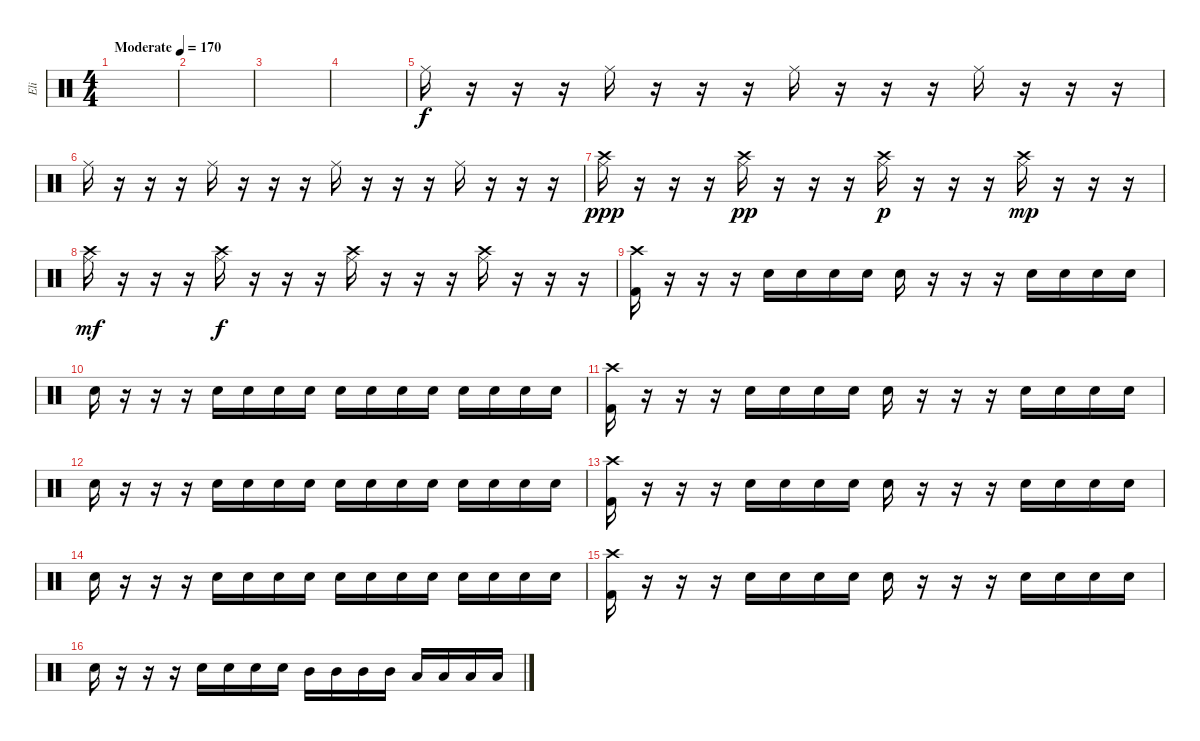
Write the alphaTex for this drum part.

\track ("Eli" "Eli") {instrument percussion}
\staff {score}
\articulation defaults
\ts (4 4)
\tempo (170 "Moderate")
\clef neutral
\ks c
|
|
|
|
"Ride (middle)".16 r.16 r.16 r.16 "Ride (middle)".16 r.16 r.16 r.16 "Ride (middle)".16 r.16 r.16 r.16 "Ride (middle)".16 r.16 r.16 r.16 |
"Ride (middle)".16 r.16 r.16 r.16 "Ride (middle)".16 r.16 r.16 r.16 "Ride (middle)".16 r.16 r.16 r.16 "Ride (middle)".16 r.16 r.16 r.16 |
("Ride (middle)" "Crash high (hit)").16{dy ppp} r.16 r.16 r.16 ("Ride (middle)" "Crash high (hit)").16{dy pp} r.16 r.16 r.16 ("Ride (middle)" "Crash high (hit)").16{dy p} r.16 r.16 r.16 ("Ride (middle)" "Crash high (hit)").16{dy mp} r.16 r.16 r.16 |
("Ride (middle)" "Crash high (hit)").16{dy mf} r.16 r.16 r.16 ("Ride (middle)" "Crash high (hit)").16{dy f} r.16 r.16 r.16 ("Ride (middle)" "Crash high (hit)").16 r.16 r.16 r.16 ("Ride (middle)" "Crash high (hit)").16 r.16 r.16 r.16 |
("Crash high (hit)" "Kick (hit) 2").16 r.16 r.16 r.16 "Snare (hit) 2".16 "Snare (hit) 2".16 "Snare (hit) 2".16 "Snare (hit) 2".16 "Snare (hit) 2".16 r.16 r.16 r.16 "Snare (hit) 2".16 "Snare (hit) 2".16 "Snare (hit) 2".16 "Snare (hit) 2".16 |
"Snare (hit) 2".16 r.16 r.16 r.16 "Snare (hit) 2".16 "Snare (hit) 2".16 "Snare (hit) 2".16 "Snare (hit) 2".16 "Snare (hit) 2".16 "Snare (hit) 2".16 "Snare (hit) 2".16 "Snare (hit) 2".16 "Snare (hit) 2".16 "Snare (hit) 2".16 "Snare (hit) 2".16 "Snare (hit) 2".16 |
("Crash high (hit)" "Kick (hit) 2").16 r.16 r.16 r.16 "Snare (hit) 2".16 "Snare (hit) 2".16 "Snare (hit) 2".16 "Snare (hit) 2".16 "Snare (hit) 2".16 r.16 r.16 r.16 "Snare (hit) 2".16 "Snare (hit) 2".16 "Snare (hit) 2".16 "Snare (hit) 2".16 |
"Snare (hit) 2".16 r.16 r.16 r.16 "Snare (hit) 2".16 "Snare (hit) 2".16 "Snare (hit) 2".16 "Snare (hit) 2".16 "Snare (hit) 2".16 "Snare (hit) 2".16 "Snare (hit) 2".16 "Snare (hit) 2".16 "Snare (hit) 2".16 "Snare (hit) 2".16 "Snare (hit) 2".16 "Snare (hit) 2".16 |
("Crash high (hit)" "Kick (hit) 2").16 r.16 r.16 r.16 "Snare (hit) 2".16 "Snare (hit) 2".16 "Snare (hit) 2".16 "Snare (hit) 2".16 "Snare (hit) 2".16 r.16 r.16 r.16 "Snare (hit) 2".16 "Snare (hit) 2".16 "Snare (hit) 2".16 "Snare (hit) 2".16 |
"Snare (hit) 2".16 r.16 r.16 r.16 "Snare (hit) 2".16 "Snare (hit) 2".16 "Snare (hit) 2".16 "Snare (hit) 2".16 "Snare (hit) 2".16 "Snare (hit) 2".16 "Snare (hit) 2".16 "Snare (hit) 2".16 "Snare (hit) 2".16 "Snare (hit) 2".16 "Snare (hit) 2".16 "Snare (hit) 2".16 |
("Crash high (hit)" "Kick (hit) 2").16 r.16 r.16 r.16 "Snare (hit) 2".16 "Snare (hit) 2".16 "Snare (hit) 2".16 "Snare (hit) 2".16 "Snare (hit) 2".16 r.16 r.16 r.16 "Snare (hit) 2".16 "Snare (hit) 2".16 "Snare (hit) 2".16 "Snare (hit) 2".16 |
"Snare (hit) 2".16 r.16 r.16 r.16 "Snare (hit) 2".16 "Snare (hit) 2".16 "Snare (hit) 2".16 "Snare (hit) 2".16 "Mid Tom (hit)".16 "Mid Tom (hit)".16 "Mid Tom (hit)".16 "Mid Tom (hit)".16 "Low Tom (hit)".16 "Low Tom (hit)".16 "Low Tom (hit)".16 "Low Tom (hit)".16
